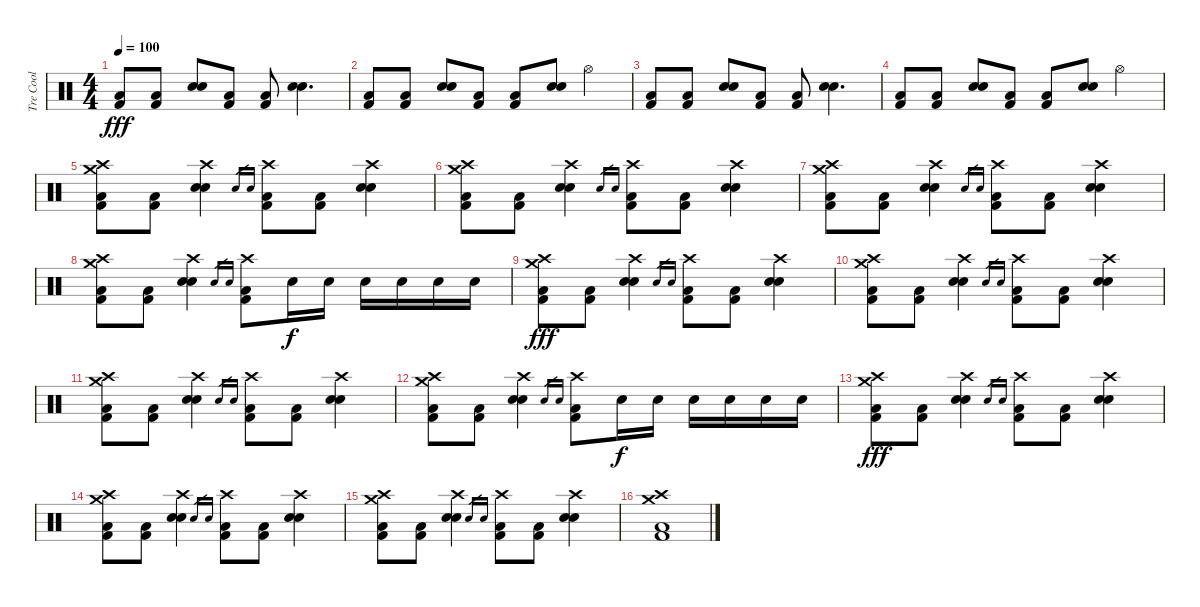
\track ("Tre Cool" "Tre Cool") {instrument percussion}
\staff {score}
\articulation defaults
\ts (4 4)
\tempo 100
\clef neutral
\ks c
("Kick (hit) 2" "Low Floor Tom (hit)").8{dy fff} ("Kick (hit) 2" "Low Floor Tom (hit)").8 ("Electric Snare (hit)" "Electric Snare (hit)").8 ("Kick (hit) 2" "Low Floor Tom (hit)").8 ("Kick (hit) 2" "Low Floor Tom (hit)").8 ("Electric Snare (hit)" "Electric Snare (hit)").4{d} |
("Kick (hit) 2" "Low Floor Tom (hit)").8 ("Kick (hit) 2" "Low Floor Tom (hit)").8 ("Electric Snare (hit)" "Electric Snare (hit)").8 ("Kick (hit) 2" "Low Floor Tom (hit)").8 ("Kick (hit) 2" "Low Floor Tom (hit)").8 ("Electric Snare (hit)" "Electric Snare (hit)").8 "Hi-Hat (open)".4 |
("Kick (hit) 2" "Low Floor Tom (hit)").8 ("Kick (hit) 2" "Low Floor Tom (hit)").8 ("Electric Snare (hit)" "Electric Snare (hit)").8 ("Kick (hit) 2" "Low Floor Tom (hit)").8 ("Kick (hit) 2" "Low Floor Tom (hit)").8 ("Electric Snare (hit)" "Electric Snare (hit)").4{d} |
("Kick (hit) 2" "Low Floor Tom (hit)").8 ("Kick (hit) 2" "Low Floor Tom (hit)").8 ("Electric Snare (hit)" "Electric Snare (hit)").8 ("Kick (hit) 2" "Low Floor Tom (hit)").8 ("Kick (hit) 2" "Low Floor Tom (hit)").8 ("Electric Snare (hit)" "Electric Snare (hit)").8 "Hi-Hat (open)".4 |
("Crash high (hit)" "Crash medium (hit)" "Kick (hit) 2" "Low Floor Tom (hit)").8 ("Kick (hit) 2" "Low Floor Tom (hit)").8 ("Crash high (hit)" "Electric Snare (hit)" "Electric Snare (hit)").4 "Electric Snare (hit)".16{gr} "Electric Snare (hit)".16{gr} ("Crash high (hit)" "Kick (hit) 2" "Low Floor Tom (hit)").8 ("Kick (hit) 2" "Low Floor Tom (hit)").8 ("Crash high (hit)" "Electric Snare (hit)" "Electric Snare (hit)").4 |
("Crash high (hit)" "Crash medium (hit)" "Kick (hit) 2" "Low Floor Tom (hit)").8 ("Kick (hit) 2" "Low Floor Tom (hit)").8 ("Crash high (hit)" "Electric Snare (hit)" "Electric Snare (hit)").4 "Electric Snare (hit)".16{gr} "Electric Snare (hit)".16{gr} ("Crash high (hit)" "Kick (hit) 2" "Low Floor Tom (hit)").8 ("Kick (hit) 2" "Low Floor Tom (hit)").8 ("Crash high (hit)" "Electric Snare (hit)" "Electric Snare (hit)").4 |
("Crash high (hit)" "Crash medium (hit)" "Kick (hit) 2" "Low Floor Tom (hit)").8 ("Kick (hit) 2" "Low Floor Tom (hit)").8 ("Crash high (hit)" "Electric Snare (hit)" "Electric Snare (hit)").4 "Electric Snare (hit)".16{gr} "Electric Snare (hit)".16{gr} ("Crash high (hit)" "Kick (hit) 2" "Low Floor Tom (hit)").8 ("Kick (hit) 2" "Low Floor Tom (hit)").8 ("Crash high (hit)" "Electric Snare (hit)" "Electric Snare (hit)").4 |
("Crash high (hit)" "Crash medium (hit)" "Kick (hit) 2" "Low Floor Tom (hit)").8 ("Kick (hit) 2" "Low Floor Tom (hit)").8 ("Crash high (hit)" "Electric Snare (hit)" "Electric Snare (hit)").4 "Electric Snare (hit)".16{gr} "Electric Snare (hit)".16{gr} ("Crash high (hit)" "Kick (hit) 2" "Low Floor Tom (hit)").8 "Electric Snare (hit)".16{dy f} "Electric Snare (hit)".16 "Electric Snare (hit)".16 "Electric Snare (hit)".16 "Electric Snare (hit)".16 "Electric Snare (hit)".16 |
("Crash high (hit)" "Crash medium (hit)" "Kick (hit) 2" "Low Floor Tom (hit)").8{dy fff} ("Kick (hit) 2" "Low Floor Tom (hit)").8 ("Crash high (hit)" "Electric Snare (hit)" "Electric Snare (hit)").4 "Electric Snare (hit)".16{gr} "Electric Snare (hit)".16{gr} ("Crash high (hit)" "Kick (hit) 2" "Low Floor Tom (hit)").8 ("Kick (hit) 2" "Low Floor Tom (hit)").8 ("Crash high (hit)" "Electric Snare (hit)" "Electric Snare (hit)").4 |
("Crash high (hit)" "Crash medium (hit)" "Kick (hit) 2" "Low Floor Tom (hit)").8 ("Kick (hit) 2" "Low Floor Tom (hit)").8 ("Crash high (hit)" "Electric Snare (hit)" "Electric Snare (hit)").4 "Electric Snare (hit)".16{gr} "Electric Snare (hit)".16{gr} ("Crash high (hit)" "Kick (hit) 2" "Low Floor Tom (hit)").8 ("Kick (hit) 2" "Low Floor Tom (hit)").8 ("Crash high (hit)" "Electric Snare (hit)" "Electric Snare (hit)").4 |
("Crash high (hit)" "Crash medium (hit)" "Kick (hit) 2" "Low Floor Tom (hit)").8 ("Kick (hit) 2" "Low Floor Tom (hit)").8 ("Crash high (hit)" "Electric Snare (hit)" "Electric Snare (hit)").4 "Electric Snare (hit)".16{gr} "Electric Snare (hit)".16{gr} ("Crash high (hit)" "Kick (hit) 2" "Low Floor Tom (hit)").8 ("Kick (hit) 2" "Low Floor Tom (hit)").8 ("Crash high (hit)" "Electric Snare (hit)" "Electric Snare (hit)").4 |
("Crash high (hit)" "Crash medium (hit)" "Kick (hit) 2" "Low Floor Tom (hit)").8 ("Kick (hit) 2" "Low Floor Tom (hit)").8 ("Crash high (hit)" "Electric Snare (hit)" "Electric Snare (hit)").4 "Electric Snare (hit)".16{gr} "Electric Snare (hit)".16{gr} ("Crash high (hit)" "Kick (hit) 2" "Low Floor Tom (hit)").8 "Electric Snare (hit)".16{dy f} "Electric Snare (hit)".16 "Electric Snare (hit)".16 "Electric Snare (hit)".16 "Electric Snare (hit)".16 "Electric Snare (hit)".16 |
("Crash high (hit)" "Crash medium (hit)" "Kick (hit) 2" "Low Floor Tom (hit)").8{dy fff} ("Kick (hit) 2" "Low Floor Tom (hit)").8 ("Crash high (hit)" "Electric Snare (hit)" "Electric Snare (hit)").4 "Electric Snare (hit)".16{gr} "Electric Snare (hit)".16{gr} ("Crash high (hit)" "Kick (hit) 2" "Low Floor Tom (hit)").8 ("Kick (hit) 2" "Low Floor Tom (hit)").8 ("Crash high (hit)" "Electric Snare (hit)" "Electric Snare (hit)").4 |
("Crash high (hit)" "Crash medium (hit)" "Kick (hit) 2" "Low Floor Tom (hit)").8 ("Kick (hit) 2" "Low Floor Tom (hit)").8 ("Crash high (hit)" "Electric Snare (hit)" "Electric Snare (hit)").4 "Electric Snare (hit)".16{gr} "Electric Snare (hit)".16{gr} ("Crash high (hit)" "Kick (hit) 2" "Low Floor Tom (hit)").8 ("Kick (hit) 2" "Low Floor Tom (hit)").8 ("Crash high (hit)" "Electric Snare (hit)" "Electric Snare (hit)").4 |
("Crash high (hit)" "Crash medium (hit)" "Kick (hit) 2" "Low Floor Tom (hit)").8 ("Kick (hit) 2" "Low Floor Tom (hit)").8 ("Crash high (hit)" "Electric Snare (hit)" "Electric Snare (hit)").4 "Electric Snare (hit)".16{gr} "Electric Snare (hit)".16{gr} ("Crash high (hit)" "Kick (hit) 2" "Low Floor Tom (hit)").8 ("Kick (hit) 2" "Low Floor Tom (hit)").8 ("Crash high (hit)" "Electric Snare (hit)" "Electric Snare (hit)").4 |
("Crash high (hit)" "Crash medium (hit)" "Kick (hit) 2" "Low Floor Tom (hit)").1
